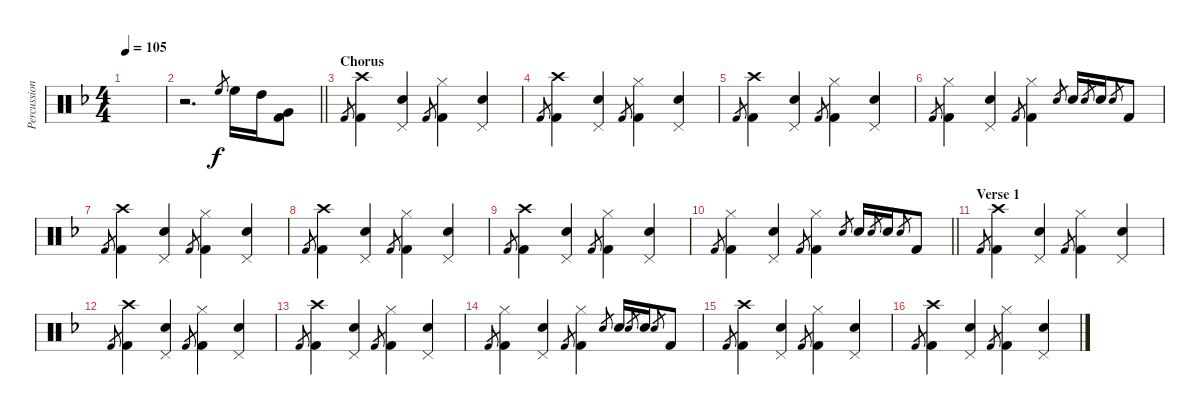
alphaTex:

\track ("Percussion" "Percussion") {instrument percussion}
\staff {score}
\articulation defaults
\ts (4 4)
\tempo 105
\clef neutral
\ks f
|
\barLineRight lightlight
r.2{d} "High Floor Tom (hit)".8{gr} "High Floor Tom (hit)".16 "High Tom (hit)".16 ("Kick (hit) 2" "Very Low Tom (hit)").8 |
\section ("" "Chorus")
"Kick (hit) 2".8{gr} ("Kick (hit) 2" "Crash high (hit)").4 ("Snare (hit) 2" "Pedal Hi-Hat (hit)").4 "Kick (hit) 2".8{gr} ("Kick (hit) 2" "Hi-Hat (closed)").4 ("Snare (hit) 2" "Pedal Hi-Hat (hit)").4 |
"Kick (hit) 2".8{gr} ("Kick (hit) 2" "Crash high (hit)").4 ("Snare (hit) 2" "Pedal Hi-Hat (hit)").4 "Kick (hit) 2".8{gr} ("Kick (hit) 2" "Hi-Hat (closed)").4 ("Snare (hit) 2" "Pedal Hi-Hat (hit)").4 |
"Kick (hit) 2".8{gr} ("Kick (hit) 2" "Crash high (hit)").4 ("Snare (hit) 2" "Pedal Hi-Hat (hit)").4 "Kick (hit) 2".8{gr} ("Kick (hit) 2" "Hi-Hat (closed)").4 ("Snare (hit) 2" "Pedal Hi-Hat (hit)").4 |
"Kick (hit) 2".8{gr} ("Kick (hit) 2" "Hi-Hat (closed)").4 ("Snare (hit) 2" "Pedal Hi-Hat (hit)").4 "Kick (hit) 2".8{gr} ("Kick (hit) 2" "Hi-Hat (closed)").4 "Snare (hit) 2".8{gr} "Snare (hit) 2".16 "Snare (hit) 2".8{gr} "Snare (hit) 2".16 "Snare (hit) 2".8{gr} "Kick (hit) 2".8 |
"Kick (hit) 2".8{gr} ("Kick (hit) 2" "Crash high (hit)").4 ("Snare (hit) 2" "Pedal Hi-Hat (hit)").4 "Kick (hit) 2".8{gr} ("Kick (hit) 2" "Hi-Hat (closed)").4 ("Snare (hit) 2" "Pedal Hi-Hat (hit)").4 |
"Kick (hit) 2".8{gr} ("Kick (hit) 2" "Crash high (hit)").4 ("Snare (hit) 2" "Pedal Hi-Hat (hit)").4 "Kick (hit) 2".8{gr} ("Kick (hit) 2" "Hi-Hat (closed)").4 ("Snare (hit) 2" "Pedal Hi-Hat (hit)").4 |
"Kick (hit) 2".8{gr} ("Kick (hit) 2" "Crash high (hit)").4 ("Snare (hit) 2" "Pedal Hi-Hat (hit)").4 "Kick (hit) 2".8{gr} ("Kick (hit) 2" "Hi-Hat (closed)").4 ("Snare (hit) 2" "Pedal Hi-Hat (hit)").4 |
\barLineRight lightlight "Kick (hit) 2".8{gr}
("Kick (hit) 2" "Hi-Hat (closed)").4 ("Snare (hit) 2" "Pedal Hi-Hat (hit)").4 "Kick (hit) 2".8{gr} ("Kick (hit) 2" "Hi-Hat (closed)").4 "Snare (hit) 2".8{gr} "Snare (hit) 2".16 "Snare (hit) 2".8{gr} "Snare (hit) 2".16 "Snare (hit) 2".8{gr} "Kick (hit) 2".8 |
\section ("" "Verse 1")
"Kick (hit) 2".8{gr} ("Kick (hit) 2" "Crash high (hit)").4 ("Snare (hit) 2" "Pedal Hi-Hat (hit)").4 "Kick (hit) 2".8{gr} ("Kick (hit) 2" "Hi-Hat (closed)").4 ("Snare (hit) 2" "Pedal Hi-Hat (hit)").4 |
"Kick (hit) 2".8{gr} ("Kick (hit) 2" "Crash high (hit)").4 ("Snare (hit) 2" "Pedal Hi-Hat (hit)").4 "Kick (hit) 2".8{gr} ("Kick (hit) 2" "Hi-Hat (closed)").4 ("Snare (hit) 2" "Pedal Hi-Hat (hit)").4 |
"Kick (hit) 2".8{gr} ("Kick (hit) 2" "Crash high (hit)").4 ("Snare (hit) 2" "Pedal Hi-Hat (hit)").4 "Kick (hit) 2".8{gr} ("Kick (hit) 2" "Hi-Hat (closed)").4 ("Snare (hit) 2" "Pedal Hi-Hat (hit)").4 |
"Kick (hit) 2".8{gr} ("Kick (hit) 2" "Hi-Hat (closed)").4 ("Snare (hit) 2" "Pedal Hi-Hat (hit)").4 "Kick (hit) 2".8{gr} ("Kick (hit) 2" "Hi-Hat (closed)").4 "Snare (hit) 2".8{gr} "Snare (hit) 2".16 "Snare (hit) 2".8{gr} "Snare (hit) 2".16 "Snare (hit) 2".8{gr} "Kick (hit) 2".8 |
"Kick (hit) 2".8{gr} ("Kick (hit) 2" "Crash high (hit)").4 ("Snare (hit) 2" "Pedal Hi-Hat (hit)").4 "Kick (hit) 2".8{gr} ("Kick (hit) 2" "Hi-Hat (closed)").4 ("Snare (hit) 2" "Pedal Hi-Hat (hit)").4 |
"Kick (hit) 2".8{gr} ("Kick (hit) 2" "Crash high (hit)").4 ("Snare (hit) 2" "Pedal Hi-Hat (hit)").4 "Kick (hit) 2".8{gr} ("Kick (hit) 2" "Hi-Hat (closed)").4 ("Snare (hit) 2" "Pedal Hi-Hat (hit)").4
